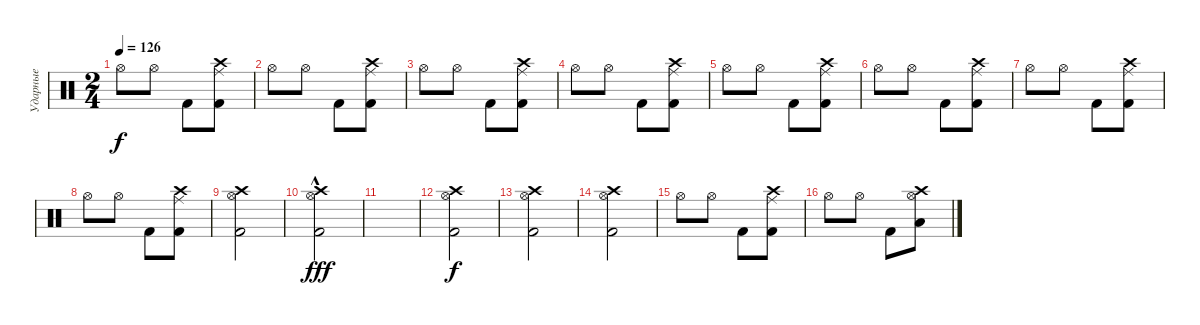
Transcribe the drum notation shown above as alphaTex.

\track ("Ударные" "Ударные") {instrument percussion}
\staff {score}
\articulation defaults
\ts (2 4)
\tempo 126
\clef neutral
\ks c "Hi-Hat (open)".8{dy f} "Hi-Hat (open)".8 "Kick (hit) 2".8
("Crash high (hit)" "Kick (hit) 2" "Ride (middle)").8 |
"Hi-Hat (open)".8 "Hi-Hat (open)".8 "Kick (hit) 2".8 ("Crash high (hit)" "Kick (hit) 2" "Ride (middle)").8 |
"Hi-Hat (open)".8 "Hi-Hat (open)".8 "Kick (hit) 2".8 ("Crash high (hit)" "Kick (hit) 2" "Ride (middle)").8 |
"Hi-Hat (open)".8 "Hi-Hat (open)".8 "Kick (hit) 2".8 ("Crash high (hit)" "Kick (hit) 2" "Ride (middle)").8 |
"Hi-Hat (open)".8 "Hi-Hat (open)".8 "Kick (hit) 2".8 ("Crash high (hit)" "Kick (hit) 2" "Ride (middle)").8 |
"Hi-Hat (open)".8 "Hi-Hat (open)".8 "Kick (hit) 2".8 ("Crash high (hit)" "Kick (hit) 2" "Ride (middle)").8 |
"Hi-Hat (open)".8 "Hi-Hat (open)".8 "Kick (hit) 2".8 ("Crash high (hit)" "Kick (hit) 2" "Ride (middle)").8 |
"Hi-Hat (open)".8 "Hi-Hat (open)".8 "Kick (hit) 2".8 ("Crash high (hit)" "Kick (hit) 2" "Ride (middle)").8 |
("Crash high (hit)" "Kick (hit) 2" "Hi-Hat (open)").2 |
("Crash high (hit)" "Kick (hit) 2"{hac} "Hi-Hat (open)").2{dy fff} |
|
("Crash high (hit)" "Kick (hit) 2" "Hi-Hat (open)").2{dy f} |
("Crash high (hit)" "Kick (hit) 2" "Hi-Hat (open)").2 |
("Crash high (hit)" "Kick (hit) 2" "Hi-Hat (open)").2 |
"Hi-Hat (open)".8 "Hi-Hat (open)".8 "Kick (hit) 2".8 ("Crash high (hit)" "Kick (hit) 2" "Ride (middle)").8 |
"Hi-Hat (open)".8 "Hi-Hat (open)".8 "Kick (hit) 2".8 ("Crash high (hit)" "Low Tom (hit)" "Hi-Hat (open)").8
